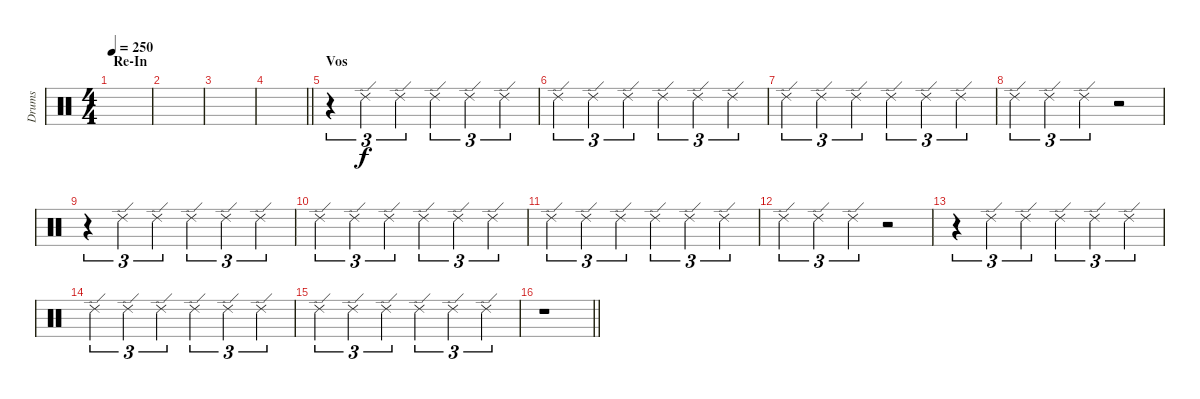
\track ("Drums" "Drums") {instrument percussion}
\staff {score}
\articulation defaults
\ts (4 4)
\section ("" "Re-In")
\tempo 250
\clef neutral
\ks c
|
|
|
\barLineRight lightlight
|
\section ("" "Vos")
r.4{tu (3 2)} "Ride (edge) 2".4{tu (3 2)} "Ride (edge) 2".4{tu (3 2)} "Ride (edge) 2".4{tu (3 2)} "Ride (edge) 2".4{tu (3 2)} "Ride (edge) 2".4{tu (3 2)} |
"Ride (edge) 2".4{tu (3 2)} "Ride (edge) 2".4{tu (3 2)} "Ride (edge) 2".4{tu (3 2)} "Ride (edge) 2".4{tu (3 2)} "Ride (edge) 2".4{tu (3 2)} "Ride (edge) 2".4{tu (3 2)} |
"Ride (edge) 2".4{tu (3 2)} "Ride (edge) 2".4{tu (3 2)} "Ride (edge) 2".4{tu (3 2)} "Ride (edge) 2".4{tu (3 2)} "Ride (edge) 2".4{tu (3 2)} "Ride (edge) 2".4{tu (3 2)} |
"Ride (edge) 2".4{tu (3 2)} "Ride (edge) 2".4{tu (3 2)} "Ride (edge) 2".4{tu (3 2)} r.2 |
r.4{tu (3 2)} "Ride (edge) 2".4{tu (3 2)} "Ride (edge) 2".4{tu (3 2)} "Ride (edge) 2".4{tu (3 2)} "Ride (edge) 2".4{tu (3 2)} "Ride (edge) 2".4{tu (3 2)} |
"Ride (edge) 2".4{tu (3 2)} "Ride (edge) 2".4{tu (3 2)} "Ride (edge) 2".4{tu (3 2)} "Ride (edge) 2".4{tu (3 2)} "Ride (edge) 2".4{tu (3 2)} "Ride (edge) 2".4{tu (3 2)} |
"Ride (edge) 2".4{tu (3 2)} "Ride (edge) 2".4{tu (3 2)} "Ride (edge) 2".4{tu (3 2)} "Ride (edge) 2".4{tu (3 2)} "Ride (edge) 2".4{tu (3 2)} "Ride (edge) 2".4{tu (3 2)} |
"Ride (edge) 2".4{tu (3 2)} "Ride (edge) 2".4{tu (3 2)} "Ride (edge) 2".4{tu (3 2)} r.2 |
r.4{tu (3 2)} "Ride (edge) 2".4{tu (3 2)} "Ride (edge) 2".4{tu (3 2)} "Ride (edge) 2".4{tu (3 2)} "Ride (edge) 2".4{tu (3 2)} "Ride (edge) 2".4{tu (3 2)} |
"Ride (edge) 2".4{tu (3 2)} "Ride (edge) 2".4{tu (3 2)} "Ride (edge) 2".4{tu (3 2)} "Ride (edge) 2".4{tu (3 2)} "Ride (edge) 2".4{tu (3 2)} "Ride (edge) 2".4{tu (3 2)} |
"Ride (edge) 2".4{tu (3 2)} "Ride (edge) 2".4{tu (3 2)} "Ride (edge) 2".4{tu (3 2)} "Ride (edge) 2".4{tu (3 2)} "Ride (edge) 2".4{tu (3 2)} "Ride (edge) 2".4{tu (3 2)} |
\barLineRight lightlight
r.1
